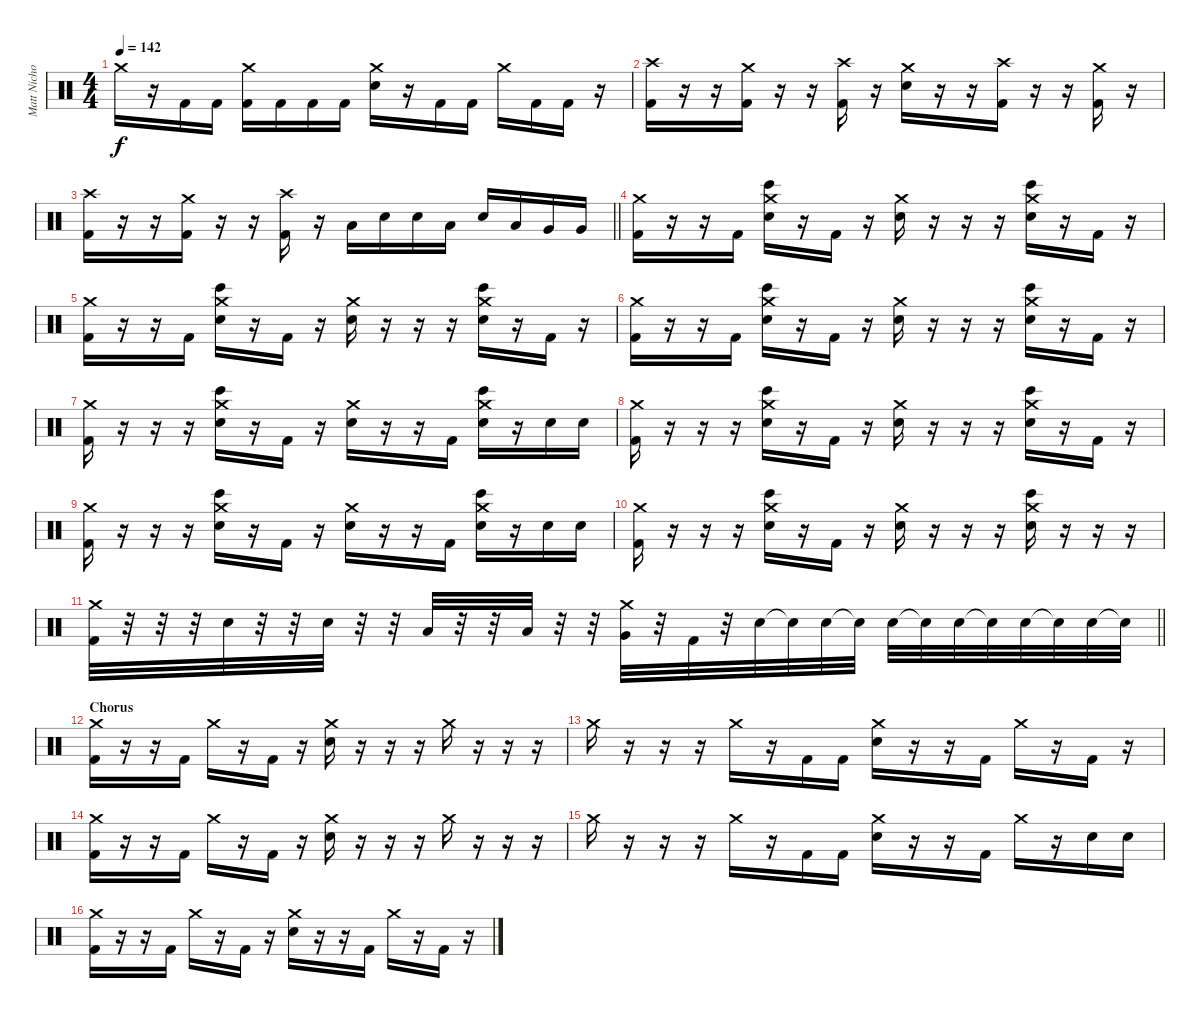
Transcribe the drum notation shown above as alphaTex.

\track ("Matt Nicholls" "Matt Nicho") {instrument percussion}
\staff {score}
\articulation defaults
\ts (4 4)
\tempo 142
\clef neutral
\ks c "Crash medium (hit)".16{dy f}
r.16 "Kick (hit) 2".16 "Kick (hit) 2".16 ("Crash medium (hit)" "Kick (hit) 2").16 "Kick (hit) 2".16 "Kick (hit) 2".16 "Kick (hit) 2".16 ("Crash medium (hit)" "Electric Snare (hit)").16 r.16 "Kick (hit) 2".16 "Kick (hit) 2".16 "Crash medium (hit)".16 "Kick (hit) 2".16 "Kick (hit) 2".16 r.16 |
("Crash high (hit)" "Kick (hit) 2").16 r.16 r.16 ("Crash medium (hit)" "Kick (hit) 2").16 r.16 r.16 ("Crash high (hit)" "Kick (hit) 2").16 r.16 ("Crash medium (hit)" "Electric Snare (hit)").16 r.16 r.16 ("Crash high (hit)" "Kick (hit) 2").16 r.16 r.16 ("Crash medium (hit)" "Kick (hit) 2").16 r.16 |
\barLineRight lightlight
("Crash high (hit)" "Kick (hit) 2").16 r.16 r.16 ("Crash medium (hit)" "Kick (hit) 2").16 r.16 r.16 ("Crash high (hit)" "Kick (hit) 2").16 r.16 "Low Tom (hit)".16 "Electric Snare (hit)".16 "Electric Snare (hit)".16 "Low Tom (hit)".16 "Electric Snare (hit)".16 "Low Tom (hit)".16 "Very Low Tom (hit)".16 "Very Low Tom (hit)".16 |
("Crash medium (hit)" "Kick (hit) 2").16 r.16 r.16 "Kick (hit) 2".16 ("Hand Clap (hit)" "Bongo High (hit)" "Crash medium (hit)").16 r.16 "Kick (hit) 2".16 r.16 ("Crash medium (hit)" "Electric Snare (hit)").16 r.16 r.16 r.16 ("Hand Clap (hit)" "Bongo High (hit)" "Crash medium (hit)").16 r.16 "Kick (hit) 2".16 r.16 |
("Crash medium (hit)" "Kick (hit) 2").16 r.16 r.16 "Kick (hit) 2".16 ("Hand Clap (hit)" "Bongo High (hit)" "Crash medium (hit)").16 r.16 "Kick (hit) 2".16 r.16 ("Crash medium (hit)" "Electric Snare (hit)").16 r.16 r.16 r.16 ("Hand Clap (hit)" "Bongo High (hit)" "Crash medium (hit)").16 r.16 "Kick (hit) 2".16 r.16 |
("Crash medium (hit)" "Kick (hit) 2").16 r.16 r.16 "Kick (hit) 2".16 ("Hand Clap (hit)" "Bongo High (hit)" "Crash medium (hit)").16 r.16 "Kick (hit) 2".16 r.16 ("Crash medium (hit)" "Electric Snare (hit)").16 r.16 r.16 r.16 ("Hand Clap (hit)" "Bongo High (hit)" "Crash medium (hit)").16 r.16 "Kick (hit) 2".16 r.16 |
("Crash medium (hit)" "Kick (hit) 2").16 r.16 r.16 r.16 ("Hand Clap (hit)" "Bongo High (hit)" "Crash medium (hit)").16 r.16 "Kick (hit) 2".16 r.16 ("Crash medium (hit)" "Electric Snare (hit)").16 r.16 r.16 "Kick (hit) 2".16 ("Hand Clap (hit)" "Bongo High (hit)" "Crash medium (hit)").16 r.16 "Electric Snare (hit)".16 "Electric Snare (hit)".16 |
("Crash medium (hit)" "Kick (hit) 2").16 r.16 r.16 r.16 ("Hand Clap (hit)" "Bongo High (hit)" "Crash medium (hit)").16 r.16 "Kick (hit) 2".16 r.16 ("Crash medium (hit)" "Electric Snare (hit)").16 r.16 r.16 r.16 ("Hand Clap (hit)" "Bongo High (hit)" "Crash medium (hit)").16 r.16 "Kick (hit) 2".16 r.16 |
("Crash medium (hit)" "Kick (hit) 2").16 r.16 r.16 r.16 ("Bongo High (hit)" "Hand Clap (hit)" "Crash medium (hit)").16 r.16 "Kick (hit) 2".16 r.16 ("Crash medium (hit)" "Electric Snare (hit)").16 r.16 r.16 "Kick (hit) 2".16 ("Bongo High (hit)" "Hand Clap (hit)" "Crash medium (hit)").16 r.16 "Electric Snare (hit)".16 "Electric Snare (hit)".16 |
("Crash medium (hit)" "Kick (hit) 2").16 r.16 r.16 r.16 ("Bongo High (hit)" "Hand Clap (hit)" "Crash medium (hit)").16 r.16 "Kick (hit) 2".16 r.16 ("Crash medium (hit)" "Electric Snare (hit)").16 r.16 r.16 r.16 ("Hand Clap (hit)" "Bongo High (hit)" "Crash medium (hit)").16 r.16 r.16 r.16 |
\barLineRight lightlight
("Crash medium (hit)" "Kick (hit) 2").32 r.32 r.32 r.32 "Electric Snare (hit)".32 r.32 r.32 "Electric Snare (hit)".32 r.32 r.32 "Low Tom (hit)".32 r.32 r.32 "Low Tom (hit)".32 r.32 r.32 ("Crash medium (hit)" "Very Low Tom (hit)").32 r.32 "Kick (hit) 2".32 r.32 "Electric Snare (hit)".32 "Snare (hit)"{t}.32 "Electric Snare (hit)".32 "Snare (hit)"{t}.32 "Electric Snare (hit)".32 "Snare (hit)"{t}.32 "Electric Snare (hit)".32 "Snare (hit)"{t}.32 "Electric Snare (hit)".32 "Snare (hit)"{t}.32 "Electric Snare (hit)".32 "Snare (hit)"{t}.32 |
\section ("" "Chorus")
("Crash medium (hit)" "Kick (hit) 2").16 r.16 r.16 "Kick (hit) 2".16 "Crash medium (hit)".16 r.16 "Kick (hit) 2".16 r.16 ("Crash medium (hit)" "Electric Snare (hit)").16 r.16 r.16 r.16 "Crash medium (hit)".16 r.16 r.16 r.16 |
"Crash medium (hit)".16 r.16 r.16 r.16 "Crash medium (hit)".16 r.16 "Kick (hit) 2".16 "Kick (hit) 2".16 ("Crash medium (hit)" "Electric Snare (hit)").16 r.16 r.16 "Kick (hit) 2".16 "Crash medium (hit)".16 r.16 "Kick (hit) 2".16 r.16 |
("Crash medium (hit)" "Kick (hit) 2").16 r.16 r.16 "Kick (hit) 2".16 "Crash medium (hit)".16 r.16 "Kick (hit) 2".16 r.16 ("Crash medium (hit)" "Electric Snare (hit)").16 r.16 r.16 r.16 "Crash medium (hit)".16 r.16 r.16 r.16 |
"Crash medium (hit)".16 r.16 r.16 r.16 "Crash medium (hit)".16 r.16 "Kick (hit) 2".16 "Kick (hit) 2".16 ("Crash medium (hit)" "Electric Snare (hit)").16 r.16 r.16 "Kick (hit) 2".16 "Crash medium (hit)".16 r.16 "Electric Snare (hit)".16 "Electric Snare (hit)".16 |
("Crash medium (hit)" "Kick (hit) 2").16 r.16 r.16 "Kick (hit) 2".16 "Crash medium (hit)".16 r.16 "Kick (hit) 2".16 r.16 ("Crash medium (hit)" "Electric Snare (hit)").16 r.16 r.16 "Kick (hit) 2".16 "Crash medium (hit)".16 r.16 "Kick (hit) 2".16 r.16
